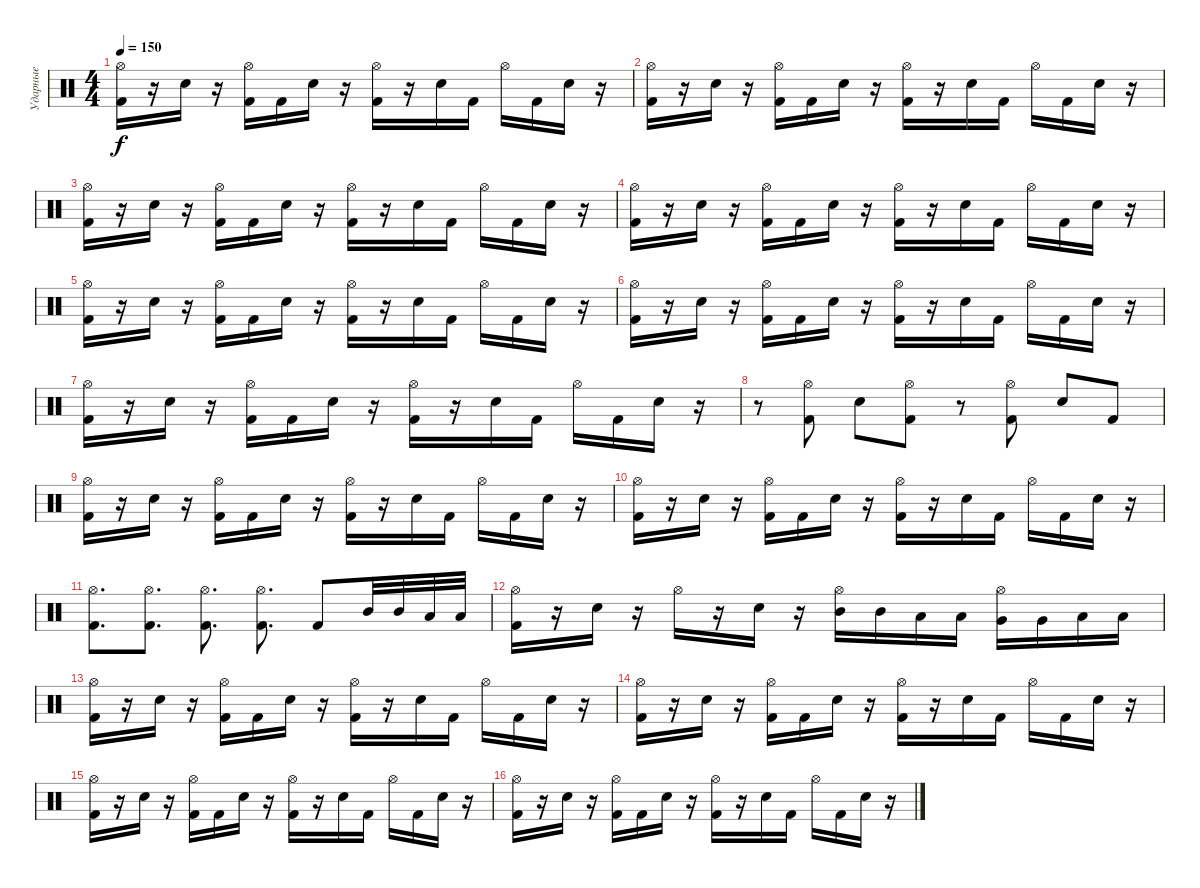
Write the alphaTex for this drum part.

\track ("Ударные" "Ударные") {instrument percussion}
\staff {score}
\articulation defaults
\ts (4 4)
\tempo 150
\clef neutral
\ks c
("Hi-Hat (open)" "Kick (hit) 2").16{dy f} r.16 "Electric Snare (hit)".16 r.16 ("Hi-Hat (open)" "Kick (hit) 2").16 "Kick (hit) 2".16 "Electric Snare (hit)".16 r.16 ("Hi-Hat (open)" "Kick (hit) 2").16 r.16 "Electric Snare (hit)".16 "Kick (hit) 2".16 "Hi-Hat (open)".16 "Kick (hit) 2".16 "Electric Snare (hit)".16 r.16 |
("Hi-Hat (open)" "Kick (hit) 2").16 r.16 "Electric Snare (hit)".16 r.16 ("Hi-Hat (open)" "Kick (hit) 2").16 "Kick (hit) 2".16 "Electric Snare (hit)".16 r.16 ("Hi-Hat (open)" "Kick (hit) 2").16 r.16 "Electric Snare (hit)".16 "Kick (hit) 2".16 "Hi-Hat (open)".16 "Kick (hit) 2".16 "Electric Snare (hit)".16 r.16 |
("Hi-Hat (open)" "Kick (hit) 2").16 r.16 "Electric Snare (hit)".16 r.16 ("Hi-Hat (open)" "Kick (hit) 2").16 "Kick (hit) 2".16 "Electric Snare (hit)".16 r.16 ("Hi-Hat (open)" "Kick (hit) 2").16 r.16 "Electric Snare (hit)".16 "Kick (hit) 2".16 "Hi-Hat (open)".16 "Kick (hit) 2".16 "Electric Snare (hit)".16 r.16 |
("Hi-Hat (open)" "Kick (hit) 2").16 r.16 "Electric Snare (hit)".16 r.16 ("Hi-Hat (open)" "Kick (hit) 2").16 "Kick (hit) 2".16 "Electric Snare (hit)".16 r.16 ("Hi-Hat (open)" "Kick (hit) 2").16 r.16 "Electric Snare (hit)".16 "Kick (hit) 2".16 "Hi-Hat (open)".16 "Kick (hit) 2".16 "Electric Snare (hit)".16 r.16 |
("Hi-Hat (open)" "Kick (hit) 2").16 r.16 "Electric Snare (hit)".16 r.16 ("Hi-Hat (open)" "Kick (hit) 2").16 "Kick (hit) 2".16 "Electric Snare (hit)".16 r.16 ("Hi-Hat (open)" "Kick (hit) 2").16 r.16 "Electric Snare (hit)".16 "Kick (hit) 2".16 "Hi-Hat (open)".16 "Kick (hit) 2".16 "Electric Snare (hit)".16 r.16 |
("Hi-Hat (open)" "Kick (hit) 2").16 r.16 "Electric Snare (hit)".16 r.16 ("Hi-Hat (open)" "Kick (hit) 2").16 "Kick (hit) 2".16 "Electric Snare (hit)".16 r.16 ("Hi-Hat (open)" "Kick (hit) 2").16 r.16 "Electric Snare (hit)".16 "Kick (hit) 2".16 "Hi-Hat (open)".16 "Kick (hit) 2".16 "Electric Snare (hit)".16 r.16 |
("Hi-Hat (open)" "Kick (hit) 2").16 r.16 "Electric Snare (hit)".16 r.16 ("Hi-Hat (open)" "Kick (hit) 2").16 "Kick (hit) 2".16 "Electric Snare (hit)".16 r.16 ("Hi-Hat (open)" "Kick (hit) 2").16 r.16 "Electric Snare (hit)".16 "Kick (hit) 2".16 "Hi-Hat (open)".16 "Kick (hit) 2".16 "Electric Snare (hit)".16 r.16 |
r.8 ("Hi-Hat (open)" "Kick (hit) 2").8 "Electric Snare (hit)".8 ("Hi-Hat (open)" "Kick (hit) 2").8 r.8 ("Hi-Hat (open)" "Kick (hit) 2").8 "Electric Snare (hit)".8 "Kick (hit) 2".8 |
("Hi-Hat (open)" "Kick (hit) 2").16 r.16 "Electric Snare (hit)".16 r.16 ("Hi-Hat (open)" "Kick (hit) 2").16 "Kick (hit) 2".16 "Electric Snare (hit)".16 r.16 ("Hi-Hat (open)" "Kick (hit) 2").16 r.16 "Electric Snare (hit)".16 "Kick (hit) 2".16 "Hi-Hat (open)".16 "Kick (hit) 2".16 "Electric Snare (hit)".16 r.16 |
("Hi-Hat (open)" "Kick (hit) 2").16 r.16 "Electric Snare (hit)".16 r.16 ("Hi-Hat (open)" "Kick (hit) 2").16 "Kick (hit) 2".16 "Electric Snare (hit)".16 r.16 ("Hi-Hat (open)" "Kick (hit) 2").16 r.16 "Electric Snare (hit)".16 "Kick (hit) 2".16 "Hi-Hat (open)".16 "Kick (hit) 2".16 "Electric Snare (hit)".16 r.16 |
("Hi-Hat (open)" "Kick (hit) 2").8{d} ("Hi-Hat (open)" "Kick (hit) 2").8{d} ("Hi-Hat (open)" "Kick (hit) 2").8{d} ("Hi-Hat (open)" "Kick (hit) 2").8{d} "Kick (hit) 2".8 "Mid Tom (hit)".32 "Mid Tom (hit)".32 "Low Tom (hit)".32 "Low Tom (hit)".32 |
("Hi-Hat (open)" "Kick (hit) 2").16 r.16 "Electric Snare (hit)".16 r.16 "Hi-Hat (open)".16 r.16 "Electric Snare (hit)".16 r.16 ("Hi-Hat (open)" "Mid Tom (hit)").16 "Mid Tom (hit)".16 "Low Tom (hit)".16 "Low Tom (hit)".16 ("Hi-Hat (open)" "Very Low Tom (hit)").16 "Very Low Tom (hit)".16 "Low Floor Tom (hit)".16 "Low Floor Tom (hit)".16 |
("Hi-Hat (open)" "Kick (hit) 2").16 r.16 "Electric Snare (hit)".16 r.16 ("Hi-Hat (open)" "Kick (hit) 2").16 "Kick (hit) 2".16 "Electric Snare (hit)".16 r.16 ("Hi-Hat (open)" "Kick (hit) 2").16 r.16 "Electric Snare (hit)".16 "Kick (hit) 2".16 "Hi-Hat (open)".16 "Kick (hit) 2".16 "Electric Snare (hit)".16 r.16 |
("Hi-Hat (open)" "Kick (hit) 2").16 r.16 "Electric Snare (hit)".16 r.16 ("Hi-Hat (open)" "Kick (hit) 2").16 "Kick (hit) 2".16 "Electric Snare (hit)".16 r.16 ("Hi-Hat (open)" "Kick (hit) 2").16 r.16 "Electric Snare (hit)".16 "Kick (hit) 2".16 "Hi-Hat (open)".16 "Kick (hit) 2".16 "Electric Snare (hit)".16 r.16 |
("Hi-Hat (open)" "Kick (hit) 2").16 r.16 "Electric Snare (hit)".16 r.16 ("Hi-Hat (open)" "Kick (hit) 2").16 "Kick (hit) 2".16 "Electric Snare (hit)".16 r.16 ("Hi-Hat (open)" "Kick (hit) 2").16 r.16 "Electric Snare (hit)".16 "Kick (hit) 2".16 "Hi-Hat (open)".16 "Kick (hit) 2".16 "Electric Snare (hit)".16 r.16 |
("Hi-Hat (open)" "Kick (hit) 2").16 r.16 "Electric Snare (hit)".16 r.16 ("Hi-Hat (open)" "Kick (hit) 2").16 "Kick (hit) 2".16 "Electric Snare (hit)".16 r.16 ("Hi-Hat (open)" "Kick (hit) 2").16 r.16 "Electric Snare (hit)".16 "Kick (hit) 2".16 "Hi-Hat (open)".16 "Kick (hit) 2".16 "Electric Snare (hit)".16 r.16
